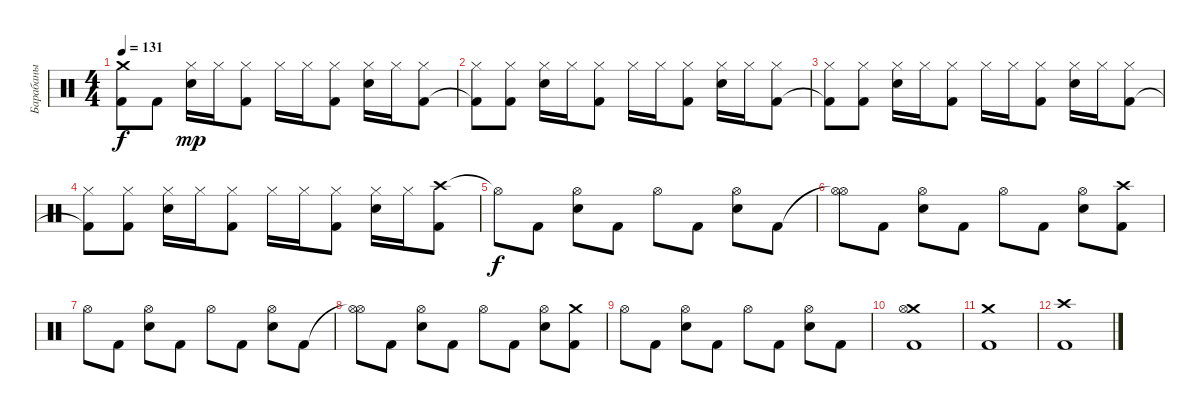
\track ("Барабаны" "Барабаны") {instrument percussion}
\staff {score}
\articulation defaults
\ts (4 4)
\tempo 131
\clef neutral
\ks c
("Crash medium (hit)"{t} "Kick (hit) 2"{t}).8{dy f} "Kick (hit) 2".8 ("Hi-Hat (closed)" "Snare (hit) 2").16{dy mp} "Hi-Hat (closed)".16 ("Hi-Hat (closed)" "Kick (hit) 2").8 "Hi-Hat (closed)".16 "Hi-Hat (closed)".16 ("Hi-Hat (closed)" "Kick (hit) 2").8 ("Hi-Hat (closed)" "Snare (hit) 2").16 "Hi-Hat (closed)".16 ("Hi-Hat (closed)" "Kick (hit) 2").8 |
("Hi-Hat (closed)" "Kick (hit) 2"{t}).8 ("Hi-Hat (closed)" "Kick (hit) 2").8 ("Hi-Hat (closed)" "Snare (hit) 2").16 "Hi-Hat (closed)".16 ("Hi-Hat (closed)" "Kick (hit) 2").8 "Hi-Hat (closed)".16 "Hi-Hat (closed)".16 ("Hi-Hat (closed)" "Kick (hit) 2").8 ("Hi-Hat (closed)" "Snare (hit) 2").16 "Hi-Hat (closed)".16 ("Hi-Hat (closed)" "Kick (hit) 2").8 |
("Hi-Hat (closed)" "Kick (hit) 2"{t}).8 ("Hi-Hat (closed)" "Kick (hit) 2").8 ("Hi-Hat (closed)" "Snare (hit) 2").16 "Hi-Hat (closed)".16 ("Hi-Hat (closed)" "Kick (hit) 2").8 "Hi-Hat (closed)".16 "Hi-Hat (closed)".16 ("Hi-Hat (closed)" "Kick (hit) 2").8 ("Hi-Hat (closed)" "Snare (hit) 2").16 "Hi-Hat (closed)".16 ("Hi-Hat (closed)" "Kick (hit) 2").8 |
("Hi-Hat (closed)" "Kick (hit) 2"{t}).8 ("Hi-Hat (closed)" "Kick (hit) 2").8 ("Hi-Hat (closed)" "Snare (hit) 2").16 "Hi-Hat (closed)".16 ("Hi-Hat (closed)" "Kick (hit) 2").8 "Hi-Hat (closed)".16 "Hi-Hat (closed)".16 ("Hi-Hat (closed)" "Kick (hit) 2").8 ("Hi-Hat (closed)" "Snare (hit) 2").16 "Hi-Hat (closed)".16 ("Crash high (hit)" "Kick (hit) 2").8 |
"Hi-Hat (open)"{t}.8{dy f} "Kick (hit) 2".8 ("Snare (hit) 2" "Hi-Hat (open)").8 "Kick (hit) 2".8 "Hi-Hat (open)".8 "Kick (hit) 2".8 ("Hi-Hat (open)" "Snare (hit) 2").8 "Kick (hit) 2".8 |
("Hi-Hat (open)"{t} "Hi-Hat (open)").8 "Kick (hit) 2".8 ("Snare (hit) 2" "Hi-Hat (open)").8 "Kick (hit) 2".8 "Hi-Hat (open)".8 "Kick (hit) 2".8 ("Hi-Hat (open)" "Snare (hit) 2").8 ("Crash high (hit)" "Kick (hit) 2").8 |
"Hi-Hat (open)".8 "Kick (hit) 2".8 ("Snare (hit) 2" "Hi-Hat (open)").8 "Kick (hit) 2".8 "Hi-Hat (open)".8 "Kick (hit) 2".8 ("Hi-Hat (open)" "Snare (hit) 2").8 "Kick (hit) 2".8 |
("Hi-Hat (open)"{t} "Hi-Hat (open)").8 "Kick (hit) 2".8 ("Snare (hit) 2" "Hi-Hat (open)").8 "Kick (hit) 2".8 "Hi-Hat (open)".8 "Kick (hit) 2".8 ("Hi-Hat (open)" "Snare (hit) 2").8 ("Crash medium (hit)" "Kick (hit) 2").8 |
"Hi-Hat (open)".8 "Kick (hit) 2".8 ("Snare (hit) 2" "Hi-Hat (open)").8 "Kick (hit) 2".8 "Hi-Hat (open)".8 "Kick (hit) 2".8 ("Hi-Hat (open)" "Snare (hit) 2").8 "Kick (hit) 2".8 |
("Crash medium (hit)" "Hi-Hat (open)" "Kick (hit) 2").1 |
("Crash medium (hit)" "Kick (hit) 2").1 |
("Crash high (hit)" "Kick (hit) 2").1
